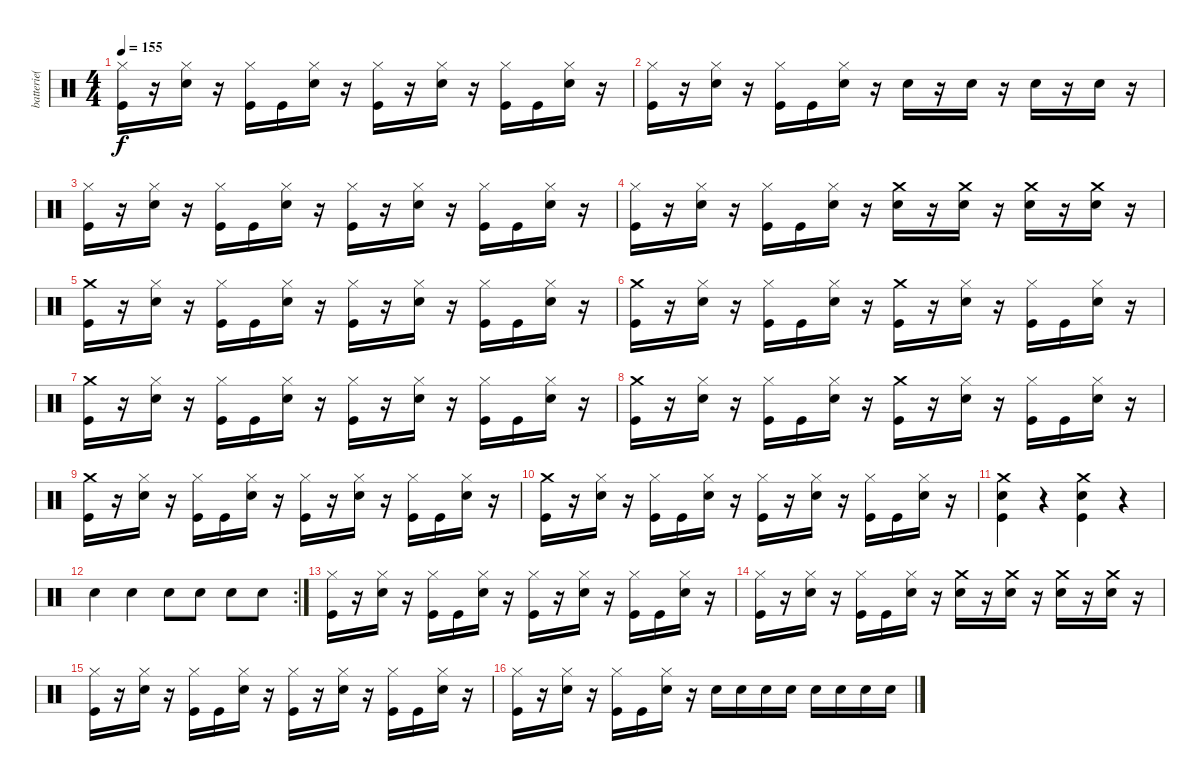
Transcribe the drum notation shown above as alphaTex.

\track ("batterie( Shawn )" "batterie( ") {instrument percussion}
\staff {score}
\articulation defaults
\ts (4 4)
\tempo 155
\clef neutral
\ks c
("Hi-Hat (closed)" "Kick (hit)").16{dy f} r.16 ("Hi-Hat (closed)" "Snare (hit) 2").16 r.16 ("Hi-Hat (closed)" "Kick (hit)").16 "Kick (hit)".16 ("Hi-Hat (closed)" "Snare (hit) 2").16 r.16 ("Hi-Hat (closed)" "Kick (hit)").16 r.16 ("Hi-Hat (closed)" "Snare (hit) 2").16 r.16 ("Hi-Hat (closed)" "Kick (hit)").16 "Kick (hit)".16 ("Hi-Hat (closed)" "Snare (hit) 2").16 r.16 |
("Hi-Hat (closed)" "Kick (hit)").16 r.16 ("Hi-Hat (closed)" "Snare (hit) 2").16 r.16 ("Hi-Hat (closed)" "Kick (hit)").16 "Kick (hit)".16 ("Hi-Hat (closed)" "Snare (hit) 2").16 r.16 "Snare (hit) 2".16 r.16 "Snare (hit) 2".16 r.16 "Snare (hit) 2".16 r.16 "Snare (hit) 2".16 r.16 |
("Hi-Hat (closed)" "Kick (hit)").16 r.16 ("Hi-Hat (closed)" "Snare (hit) 2").16 r.16 ("Hi-Hat (closed)" "Kick (hit)").16 "Kick (hit)".16 ("Hi-Hat (closed)" "Snare (hit) 2").16 r.16 ("Hi-Hat (closed)" "Kick (hit)").16 r.16 ("Hi-Hat (closed)" "Snare (hit) 2").16 r.16 ("Hi-Hat (closed)" "Kick (hit)").16 "Kick (hit)".16 ("Hi-Hat (closed)" "Snare (hit) 2").16 r.16 |
("Hi-Hat (closed)" "Kick (hit)").16 r.16 ("Hi-Hat (closed)" "Snare (hit) 2").16 r.16 ("Hi-Hat (closed)" "Kick (hit)").16 "Kick (hit)".16 ("Hi-Hat (closed)" "Snare (hit) 2").16 r.16 ("Crash medium (hit)" "Snare (hit) 2").16 r.16 ("Crash medium (hit)" "Snare (hit) 2").16 r.16 ("Crash medium (hit)" "Snare (hit) 2").16 r.16 ("Crash medium (hit)" "Snare (hit) 2").16 r.16 |
("Crash medium (hit)" "Kick (hit)").16 r.16 ("Hi-Hat (closed)" "Snare (hit) 2").16 r.16 ("Hi-Hat (closed)" "Kick (hit)").16 "Kick (hit)".16 ("Hi-Hat (closed)" "Snare (hit) 2").16 r.16 ("Hi-Hat (closed)" "Kick (hit)").16 r.16 ("Hi-Hat (closed)" "Snare (hit) 2").16 r.16 ("Hi-Hat (closed)" "Kick (hit)").16 "Kick (hit)".16 ("Hi-Hat (closed)" "Snare (hit) 2").16 r.16 |
("Crash medium (hit)" "Kick (hit)").16 r.16 ("Hi-Hat (closed)" "Snare (hit) 2").16 r.16 ("Hi-Hat (closed)" "Kick (hit)").16 "Kick (hit)".16 ("Hi-Hat (closed)" "Snare (hit) 2").16 r.16 ("Crash medium (hit)" "Kick (hit)").16 r.16 ("Hi-Hat (closed)" "Snare (hit) 2").16 r.16 ("Hi-Hat (closed)" "Kick (hit)").16 "Kick (hit)".16 ("Hi-Hat (closed)" "Snare (hit) 2").16 r.16 |
("Crash medium (hit)" "Kick (hit)").16 r.16 ("Hi-Hat (closed)" "Snare (hit) 2").16 r.16 ("Hi-Hat (closed)" "Kick (hit)").16 "Kick (hit)".16 ("Hi-Hat (closed)" "Snare (hit) 2").16 r.16 ("Hi-Hat (closed)" "Kick (hit)").16 r.16 ("Hi-Hat (closed)" "Snare (hit) 2").16 r.16 ("Hi-Hat (closed)" "Kick (hit)").16 "Kick (hit)".16 ("Hi-Hat (closed)" "Snare (hit) 2").16 r.16 |
("Crash medium (hit)" "Kick (hit)").16 r.16 ("Hi-Hat (closed)" "Snare (hit) 2").16 r.16 ("Hi-Hat (closed)" "Kick (hit)").16 "Kick (hit)".16 ("Hi-Hat (closed)" "Snare (hit) 2").16 r.16 ("Crash medium (hit)" "Kick (hit)").16 r.16 ("Hi-Hat (closed)" "Snare (hit) 2").16 r.16 ("Hi-Hat (closed)" "Kick (hit)").16 "Kick (hit)".16 ("Hi-Hat (closed)" "Snare (hit) 2").16 r.16 |
("Crash medium (hit)" "Kick (hit)").16 r.16 ("Hi-Hat (closed)" "Snare (hit) 2").16 r.16 ("Hi-Hat (closed)" "Kick (hit)").16 "Kick (hit)".16 ("Hi-Hat (closed)" "Snare (hit) 2").16 r.16 ("Hi-Hat (closed)" "Kick (hit)").16 r.16 ("Hi-Hat (closed)" "Snare (hit) 2").16 r.16 ("Hi-Hat (closed)" "Kick (hit)").16 "Kick (hit)".16 ("Hi-Hat (closed)" "Snare (hit) 2").16 r.16 |
("Crash medium (hit)" "Kick (hit)").16 r.16 ("Hi-Hat (closed)" "Snare (hit) 2").16 r.16 ("Hi-Hat (closed)" "Kick (hit)").16 "Kick (hit)".16 ("Hi-Hat (closed)" "Snare (hit) 2").16 r.16 ("Hi-Hat (closed)" "Kick (hit)").16 r.16 ("Hi-Hat (closed)" "Snare (hit) 2").16 r.16 ("Hi-Hat (closed)" "Kick (hit)").16 "Kick (hit)".16 ("Hi-Hat (closed)" "Snare (hit) 2").16 r.16 |
("Crash medium (hit)" "Snare (hit) 2" "Kick (hit)").4 r.4 ("Crash medium (hit)" "Snare (hit) 2" "Kick (hit)").4 r.4 |
\rc 2 "Snare (hit) 2".4 "Snare (hit) 2".4 "Snare (hit) 2".8 "Snare (hit) 2".8 "Snare (hit) 2".8 "Snare (hit) 2".8
|
("Hi-Hat (closed)" "Kick (hit)").16 r.16 ("Hi-Hat (closed)" "Snare (hit) 2").16 r.16 ("Hi-Hat (closed)" "Kick (hit)").16 "Kick (hit)".16 ("Hi-Hat (closed)" "Snare (hit) 2").16 r.16 ("Hi-Hat (closed)" "Kick (hit)").16 r.16 ("Hi-Hat (closed)" "Snare (hit) 2").16 r.16 ("Hi-Hat (closed)" "Kick (hit)").16 "Kick (hit)".16 ("Hi-Hat (closed)" "Snare (hit) 2").16 r.16 |
("Hi-Hat (closed)" "Kick (hit)").16 r.16 ("Hi-Hat (closed)" "Snare (hit) 2").16 r.16 ("Hi-Hat (closed)" "Kick (hit)").16 "Kick (hit)".16 ("Hi-Hat (closed)" "Snare (hit) 2").16 r.16 ("Crash medium (hit)" "Snare (hit) 2").16 r.16 ("Crash medium (hit)" "Snare (hit) 2").16 r.16 ("Crash medium (hit)" "Snare (hit) 2").16 r.16 ("Crash medium (hit)" "Snare (hit) 2").16 r.16 |
("Hi-Hat (closed)" "Kick (hit)").16 r.16 ("Hi-Hat (closed)" "Snare (hit) 2").16 r.16 ("Hi-Hat (closed)" "Kick (hit)").16 "Kick (hit)".16 ("Hi-Hat (closed)" "Snare (hit) 2").16 r.16 ("Hi-Hat (closed)" "Kick (hit)").16 r.16 ("Hi-Hat (closed)" "Snare (hit) 2").16 r.16 ("Hi-Hat (closed)" "Kick (hit)").16 "Kick (hit)".16 ("Hi-Hat (closed)" "Snare (hit) 2").16 r.16 |
("Hi-Hat (closed)" "Kick (hit)").16 r.16 ("Hi-Hat (closed)" "Snare (hit) 2").16 r.16 ("Hi-Hat (closed)" "Kick (hit)").16 "Kick (hit)".16 ("Hi-Hat (closed)" "Snare (hit) 2").16 r.16 "Snare (hit) 2".16 "Snare (hit) 2".16 "Snare (hit) 2".16 "Snare (hit) 2".16 "Snare (hit) 2".16 "Snare (hit) 2".16 "Snare (hit) 2".16 "Snare (hit) 2".16
